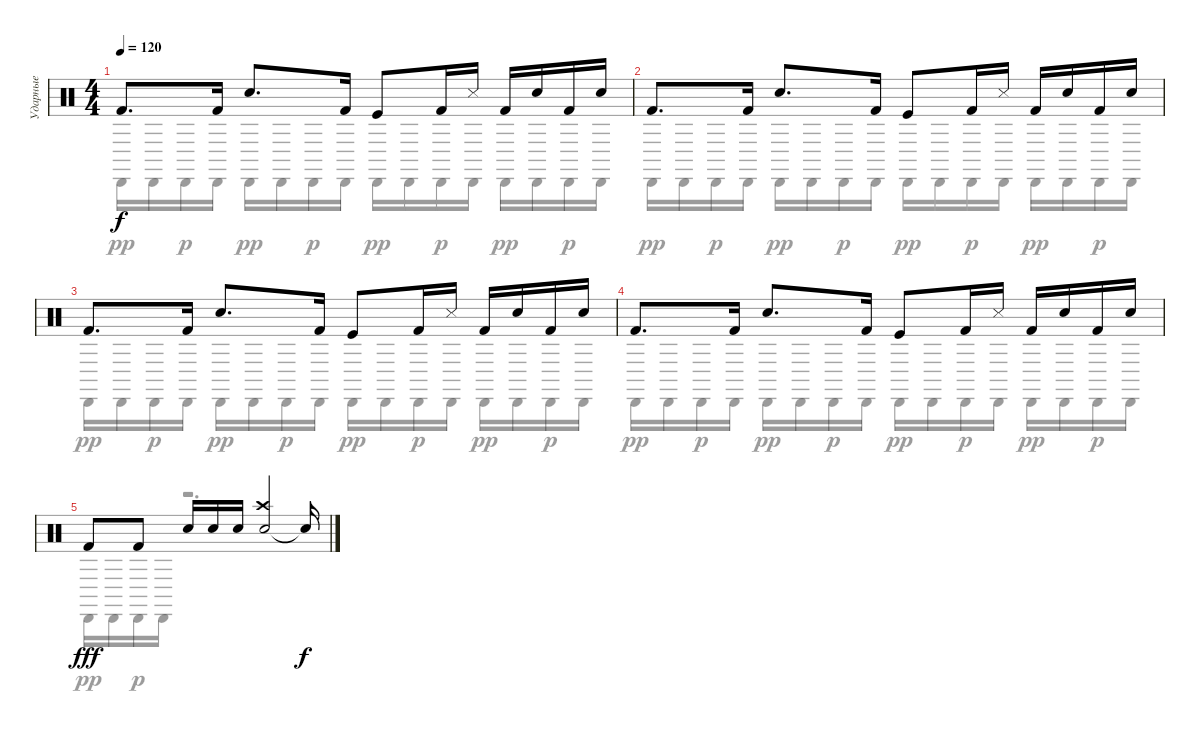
\track ("Ударные" "Ударные") {instrument percussion}
\staff {score}
\articulation defaults
\voice
\ts (4 4)
\tempo 120
\clef neutral
\ks c "Kick (hit) 2".8{d dy f} "Kick (hit) 2".16 "Electric Snare (hit)".8{d} "Kick (hit) 2".16 "Kick (hit)".8 "Kick (hit) 2".16 "Metronome (hit)".16 "Kick (hit) 2".16 "Electric Snare (hit)".16 "Kick (hit) 2".16 "Electric Snare (hit)".16
|
"Kick (hit) 2".8{d} "Kick (hit) 2".16 "Electric Snare (hit)".8{d} "Kick (hit) 2".16 "Kick (hit)".8 "Kick (hit) 2".16 "Metronome (hit)".16 "Kick (hit) 2".16 "Electric Snare (hit)".16 "Kick (hit) 2".16 "Electric Snare (hit)".16 |
"Kick (hit) 2".8{d} "Kick (hit) 2".16 "Electric Snare (hit)".8{d} "Kick (hit) 2".16 "Kick (hit)".8 "Kick (hit) 2".16 "Metronome (hit)".16 "Kick (hit) 2".16 "Electric Snare (hit)".16 "Kick (hit) 2".16 "Electric Snare (hit)".16 |
"Kick (hit) 2".8{d} "Kick (hit) 2".16 "Electric Snare (hit)".8{d} "Kick (hit) 2".16 "Kick (hit)".8 "Kick (hit) 2".16 "Metronome (hit)".16 "Kick (hit) 2".16 "Electric Snare (hit)".16 "Kick (hit) 2".16 "Electric Snare (hit)".16 |
"Kick (hit) 2".8{dy fff} "Kick (hit) 2".8 "Electric Snare (hit)".16 "Electric Snare (hit)".16 "Electric Snare (hit)".16 ("Electric Snare (hit)" "Crash high (hit)").2 "Snare (hit)"{t}.16{dy f}
\voice
\clef neutral
\ottava regular
\simile none
\ks c "Cabasa (hit)".16{dy pp} "Cabasa (hit)".16 "Cabasa (hit)".16{dy p} "Cabasa (hit)".16 "Cabasa (hit)".16{dy pp} "Cabasa (hit)".16 "Cabasa (hit)".16{dy p} "Cabasa (hit)".16 "Cabasa (hit)".16{dy pp} "Cabasa (hit)".16 "Cabasa (hit)".16{dy p} "Cabasa (hit)".16 "Cabasa (hit)".16{dy pp} "Cabasa (hit)".16 "Cabasa (hit)".16{dy p} "Cabasa (hit)".16
|
"Cabasa (hit)".16{dy pp} "Cabasa (hit)".16 "Cabasa (hit)".16{dy p} "Cabasa (hit)".16 "Cabasa (hit)".16{dy pp} "Cabasa (hit)".16 "Cabasa (hit)".16{dy p} "Cabasa (hit)".16 "Cabasa (hit)".16{dy pp} "Cabasa (hit)".16 "Cabasa (hit)".16{dy p} "Cabasa (hit)".16 "Cabasa (hit)".16{dy pp} "Cabasa (hit)".16 "Cabasa (hit)".16{dy p} "Cabasa (hit)".16 |
"Cabasa (hit)".16{dy pp} "Cabasa (hit)".16 "Cabasa (hit)".16{dy p} "Cabasa (hit)".16 "Cabasa (hit)".16{dy pp} "Cabasa (hit)".16 "Cabasa (hit)".16{dy p} "Cabasa (hit)".16 "Cabasa (hit)".16{dy pp} "Cabasa (hit)".16 "Cabasa (hit)".16{dy p} "Cabasa (hit)".16 "Cabasa (hit)".16{dy pp} "Cabasa (hit)".16 "Cabasa (hit)".16{dy p} "Cabasa (hit)".16 |
"Cabasa (hit)".16{dy pp} "Cabasa (hit)".16 "Cabasa (hit)".16{dy p} "Cabasa (hit)".16 "Cabasa (hit)".16{dy pp} "Cabasa (hit)".16 "Cabasa (hit)".16{dy p} "Cabasa (hit)".16 "Cabasa (hit)".16{dy pp} "Cabasa (hit)".16 "Cabasa (hit)".16{dy p} "Cabasa (hit)".16 "Cabasa (hit)".16{dy pp} "Cabasa (hit)".16 "Cabasa (hit)".16{dy p} "Cabasa (hit)".16 |
"Cabasa (hit)".16{dy pp} "Cabasa (hit)".16 "Cabasa (hit)".16{dy p} "Cabasa (hit)".16 r.2{d}
